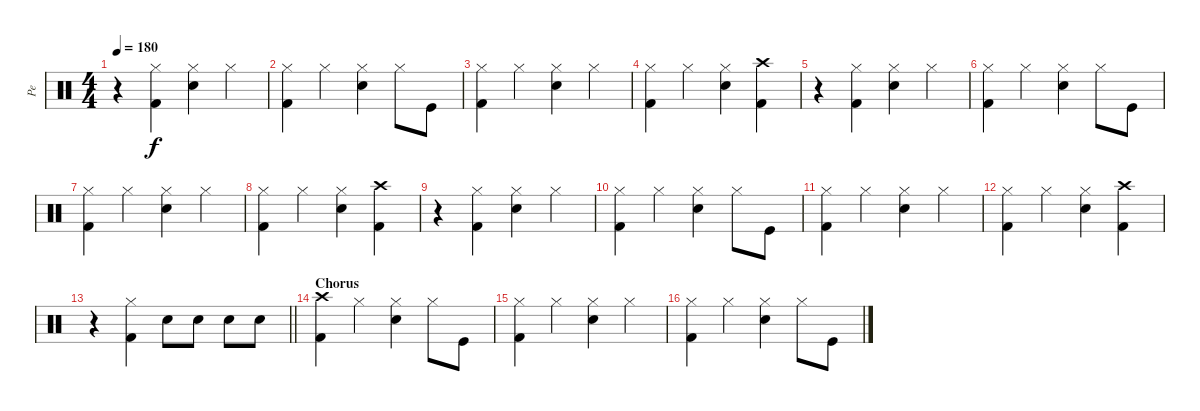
\track ("Pe" "Pe") {instrument percussion}
\staff {score}
\articulation defaults
\ts (4 4)
\tempo 180
\clef neutral
\ks c
r.4{dy f} ("Kick (hit) 2" "Hi-Hat (closed)").4 ("Electric Snare (hit)" "Hi-Hat (closed)").4 "Hi-Hat (closed)".4 |
("Kick (hit) 2" "Hi-Hat (closed)").4 "Hi-Hat (closed)".4 ("Electric Snare (hit)" "Hi-Hat (closed)").4 "Hi-Hat (closed)".8 "Kick (hit)".8 |
("Kick (hit) 2" "Hi-Hat (closed)").4 "Hi-Hat (closed)".4 ("Electric Snare (hit)" "Hi-Hat (closed)").4 "Hi-Hat (closed)".4 |
("Kick (hit) 2" "Hi-Hat (closed)").4 "Hi-Hat (closed)".4 ("Electric Snare (hit)" "Hi-Hat (closed)").4 ("Kick (hit) 2" "Crash high (hit)").4 |
r.4 ("Kick (hit) 2" "Hi-Hat (closed)").4 ("Electric Snare (hit)" "Hi-Hat (closed)").4 "Hi-Hat (closed)".4 |
("Kick (hit) 2" "Hi-Hat (closed)").4 "Hi-Hat (closed)".4 ("Electric Snare (hit)" "Hi-Hat (closed)").4 "Hi-Hat (closed)".8 "Kick (hit)".8 |
("Kick (hit) 2" "Hi-Hat (closed)").4 "Hi-Hat (closed)".4 ("Electric Snare (hit)" "Hi-Hat (closed)").4 "Hi-Hat (closed)".4 |
("Kick (hit) 2" "Hi-Hat (closed)").4 "Hi-Hat (closed)".4 ("Electric Snare (hit)" "Hi-Hat (closed)").4 ("Kick (hit) 2" "Crash high (hit)").4 |
r.4 ("Kick (hit) 2" "Hi-Hat (closed)").4 ("Electric Snare (hit)" "Hi-Hat (closed)").4 "Hi-Hat (closed)".4 |
("Kick (hit) 2" "Hi-Hat (closed)").4 "Hi-Hat (closed)".4 ("Electric Snare (hit)" "Hi-Hat (closed)").4 "Hi-Hat (closed)".8 "Kick (hit)".8 |
("Kick (hit) 2" "Hi-Hat (closed)").4 "Hi-Hat (closed)".4 ("Electric Snare (hit)" "Hi-Hat (closed)").4 "Hi-Hat (closed)".4 |
("Kick (hit) 2" "Hi-Hat (closed)").4 "Hi-Hat (closed)".4 ("Electric Snare (hit)" "Hi-Hat (closed)").4 ("Kick (hit) 2" "Crash high (hit)").4 |
\barLineRight lightlight
r.4 ("Kick (hit) 2" "Hi-Hat (closed)").4 "Electric Snare (hit)".8 "Electric Snare (hit)".8 "Electric Snare (hit)".8 "Electric Snare (hit)".8 |
\section ("" "Chorus")
("Kick (hit) 2" "Crash high (hit)").4 "Hi-Hat (closed)".4 ("Electric Snare (hit)" "Hi-Hat (closed)").4 "Hi-Hat (closed)".8 "Kick (hit)".8 |
("Kick (hit) 2" "Hi-Hat (closed)").4 "Hi-Hat (closed)".4 ("Electric Snare (hit)" "Hi-Hat (closed)").4 "Hi-Hat (closed)".4 |
("Kick (hit) 2" "Hi-Hat (closed)").4 "Hi-Hat (closed)".4 ("Electric Snare (hit)" "Hi-Hat (closed)").4 "Hi-Hat (closed)".8 "Kick (hit)".8
